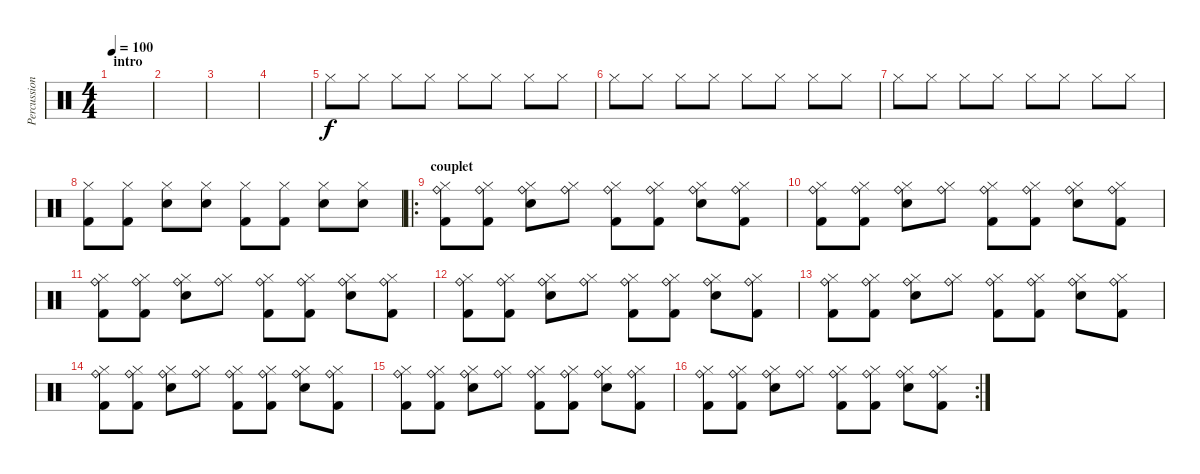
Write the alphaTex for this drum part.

\track ("Percussions" "Percussion") {instrument percussion}
\staff {score}
\articulation defaults
\ts (4 4)
\section ("" "intro")
\tempo 100
\clef neutral
\ks c
|
|
|
|
"Hi-Hat (closed)".8 "Hi-Hat (closed)".8 "Hi-Hat (closed)".8 "Hi-Hat (closed)".8 "Hi-Hat (closed)".8 "Hi-Hat (closed)".8 "Hi-Hat (closed)".8 "Hi-Hat (closed)".8 |
"Hi-Hat (closed)".8 "Hi-Hat (closed)".8 "Hi-Hat (closed)".8 "Hi-Hat (closed)".8 "Hi-Hat (closed)".8 "Hi-Hat (closed)".8 "Hi-Hat (closed)".8 "Hi-Hat (closed)".8 |
"Hi-Hat (closed)".8 "Hi-Hat (closed)".8 "Hi-Hat (closed)".8 "Hi-Hat (closed)".8 "Hi-Hat (closed)".8 "Hi-Hat (closed)".8 "Hi-Hat (closed)".8 "Hi-Hat (closed)".8 |
("Kick (hit) 2" "Hi-Hat (closed)").8 ("Kick (hit) 2" "Hi-Hat (closed)").8 ("Snare (hit) 2" "Hi-Hat (closed)").8 ("Snare (hit) 2" "Hi-Hat (closed)").8 ("Kick (hit) 2" "Hi-Hat (closed)").8 ("Kick (hit) 2" "Hi-Hat (closed)").8 ("Snare (hit) 2" "Hi-Hat (closed)").8 ("Snare (hit) 2" "Hi-Hat (closed)").8 |
\ro
\section ("" "couplet")
("Kick (hit) 2" "Hi-Hat (closed)" "Ride (bell)").8 ("Kick (hit) 2" "Hi-Hat (closed)" "Ride (bell)").8 ("Snare (hit) 2" "Hi-Hat (closed)" "Ride (bell)").8 ("Hi-Hat (closed)" "Ride (bell)").8 ("Kick (hit) 2" "Hi-Hat (closed)" "Ride (bell)").8 ("Kick (hit) 2" "Hi-Hat (closed)" "Ride (bell)").8 ("Snare (hit) 2" "Hi-Hat (closed)" "Ride (bell)").8 ("Kick (hit) 2" "Hi-Hat (closed)" "Ride (bell)").8 |
("Kick (hit) 2" "Hi-Hat (closed)" "Ride (bell)").8 ("Kick (hit) 2" "Hi-Hat (closed)" "Ride (bell)").8 ("Snare (hit) 2" "Hi-Hat (closed)" "Ride (bell)").8 ("Hi-Hat (closed)" "Ride (bell)").8 ("Kick (hit) 2" "Hi-Hat (closed)" "Ride (bell)").8 ("Kick (hit) 2" "Hi-Hat (closed)" "Ride (bell)").8 ("Snare (hit) 2" "Hi-Hat (closed)" "Ride (bell)").8 ("Kick (hit) 2" "Hi-Hat (closed)" "Ride (bell)").8 |
("Kick (hit) 2" "Hi-Hat (closed)" "Ride (bell)").8 ("Kick (hit) 2" "Hi-Hat (closed)" "Ride (bell)").8 ("Snare (hit) 2" "Hi-Hat (closed)" "Ride (bell)").8 ("Hi-Hat (closed)" "Ride (bell)").8 ("Kick (hit) 2" "Hi-Hat (closed)" "Ride (bell)").8 ("Kick (hit) 2" "Hi-Hat (closed)" "Ride (bell)").8 ("Snare (hit) 2" "Hi-Hat (closed)" "Ride (bell)").8 ("Kick (hit) 2" "Hi-Hat (closed)" "Ride (bell)").8 |
("Kick (hit) 2" "Hi-Hat (closed)" "Ride (bell)").8 ("Kick (hit) 2" "Hi-Hat (closed)" "Ride (bell)").8 ("Snare (hit) 2" "Hi-Hat (closed)" "Ride (bell)").8 ("Hi-Hat (closed)" "Ride (bell)").8 ("Kick (hit) 2" "Hi-Hat (closed)" "Ride (bell)").8 ("Kick (hit) 2" "Hi-Hat (closed)" "Ride (bell)").8 ("Snare (hit) 2" "Hi-Hat (closed)" "Ride (bell)").8 ("Kick (hit) 2" "Hi-Hat (closed)" "Ride (bell)").8 |
("Kick (hit) 2" "Hi-Hat (closed)" "Ride (bell)").8 ("Kick (hit) 2" "Hi-Hat (closed)" "Ride (bell)").8 ("Snare (hit) 2" "Hi-Hat (closed)" "Ride (bell)").8 ("Hi-Hat (closed)" "Ride (bell)").8 ("Kick (hit) 2" "Hi-Hat (closed)" "Ride (bell)").8 ("Kick (hit) 2" "Hi-Hat (closed)" "Ride (bell)").8 ("Snare (hit) 2" "Hi-Hat (closed)" "Ride (bell)").8 ("Kick (hit) 2" "Hi-Hat (closed)" "Ride (bell)").8 |
("Kick (hit) 2" "Hi-Hat (closed)" "Ride (bell)").8 ("Kick (hit) 2" "Hi-Hat (closed)" "Ride (bell)").8 ("Snare (hit) 2" "Hi-Hat (closed)" "Ride (bell)").8 ("Hi-Hat (closed)" "Ride (bell)").8 ("Kick (hit) 2" "Hi-Hat (closed)" "Ride (bell)").8 ("Kick (hit) 2" "Hi-Hat (closed)" "Ride (bell)").8 ("Snare (hit) 2" "Hi-Hat (closed)" "Ride (bell)").8 ("Kick (hit) 2" "Hi-Hat (closed)" "Ride (bell)").8 |
("Kick (hit) 2" "Hi-Hat (closed)" "Ride (bell)").8 ("Kick (hit) 2" "Hi-Hat (closed)" "Ride (bell)").8 ("Snare (hit) 2" "Hi-Hat (closed)" "Ride (bell)").8 ("Hi-Hat (closed)" "Ride (bell)").8 ("Kick (hit) 2" "Hi-Hat (closed)" "Ride (bell)").8 ("Kick (hit) 2" "Hi-Hat (closed)" "Ride (bell)").8 ("Snare (hit) 2" "Hi-Hat (closed)" "Ride (bell)").8 ("Kick (hit) 2" "Hi-Hat (closed)" "Ride (bell)").8 |
\rc 2
("Kick (hit) 2" "Hi-Hat (closed)" "Ride (bell)").8 ("Kick (hit) 2" "Hi-Hat (closed)" "Ride (bell)").8 ("Snare (hit) 2" "Hi-Hat (closed)" "Ride (bell)").8 ("Hi-Hat (closed)" "Ride (bell)").8 ("Kick (hit) 2" "Hi-Hat (closed)" "Ride (bell)").8 ("Kick (hit) 2" "Hi-Hat (closed)" "Ride (bell)").8 ("Snare (hit) 2" "Hi-Hat (closed)" "Ride (bell)").8 ("Kick (hit) 2" "Hi-Hat (closed)" "Ride (bell)").8
